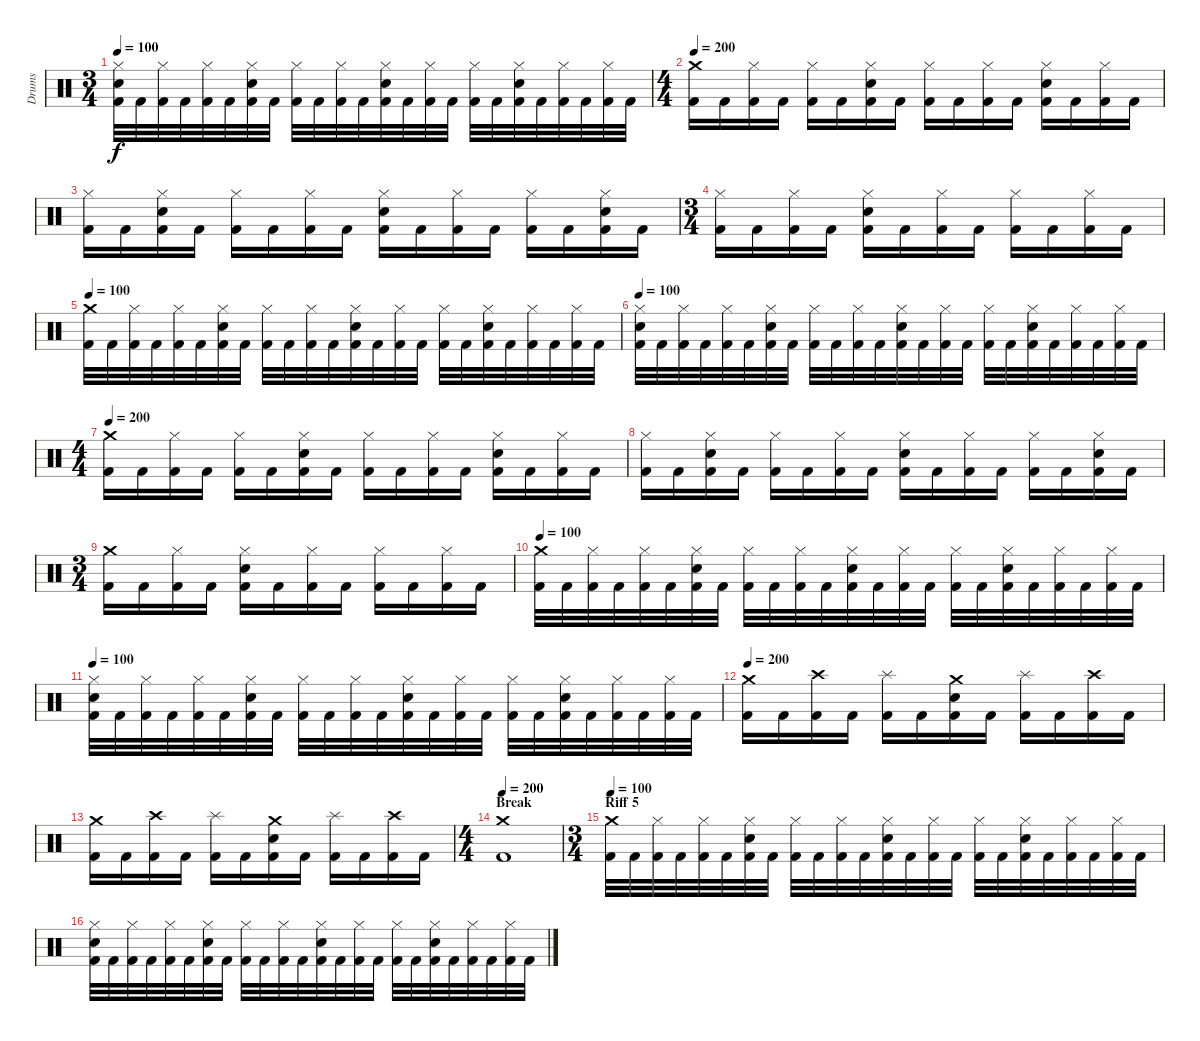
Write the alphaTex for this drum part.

\track ("Drums" "Drums") {instrument percussion}
\staff {score}
\articulation defaults
\ts (3 4)
\tempo 100
\clef neutral
\ks c
("Hi-Hat (closed)" "Electric Snare (hit)" "Kick (hit) 2").32{dy f} "Kick (hit) 2".32 ("Hi-Hat (closed)" "Kick (hit) 2").32 "Kick (hit) 2".32 ("Hi-Hat (closed)" "Kick (hit) 2").32 "Kick (hit) 2".32 ("Hi-Hat (closed)" "Electric Snare (hit)" "Kick (hit) 2").32 "Kick (hit) 2".32 ("Hi-Hat (closed)" "Kick (hit) 2").32 "Kick (hit) 2".32 ("Hi-Hat (closed)" "Kick (hit) 2").32 "Kick (hit) 2".32 ("Hi-Hat (closed)" "Electric Snare (hit)" "Kick (hit) 2").32 "Kick (hit) 2".32 ("Hi-Hat (closed)" "Kick (hit) 2").32 "Kick (hit) 2".32 ("Hi-Hat (closed)" "Kick (hit) 2").32 "Kick (hit) 2".32 ("Hi-Hat (closed)" "Electric Snare (hit)" "Kick (hit) 2").32 "Kick (hit) 2".32 ("Hi-Hat (closed)" "Kick (hit) 2").32 "Kick (hit) 2".32 ("Hi-Hat (closed)" "Kick (hit) 2").32 "Kick (hit) 2".32 |
\ts (4 4)
\tempo 200
("Crash medium (hit)" "Kick (hit) 2").16 "Kick (hit) 2".16 ("Hi-Hat (closed)" "Kick (hit) 2").16 "Kick (hit) 2".16 ("Hi-Hat (closed)" "Kick (hit) 2").16 "Kick (hit) 2".16 ("Hi-Hat (closed)" "Electric Snare (hit)" "Kick (hit) 2").16 "Kick (hit) 2".16 ("Hi-Hat (closed)" "Kick (hit) 2").16 "Kick (hit) 2".16 ("Hi-Hat (closed)" "Kick (hit) 2").16 "Kick (hit) 2".16 ("Hi-Hat (closed)" "Electric Snare (hit)" "Kick (hit) 2").16 "Kick (hit) 2".16 ("Hi-Hat (closed)" "Kick (hit) 2").16 "Kick (hit) 2".16 |
("Hi-Hat (closed)" "Kick (hit) 2").16 "Kick (hit) 2".16 ("Hi-Hat (closed)" "Electric Snare (hit)" "Kick (hit) 2").16 "Kick (hit) 2".16 ("Hi-Hat (closed)" "Kick (hit) 2").16 "Kick (hit) 2".16 ("Hi-Hat (closed)" "Kick (hit) 2").16 "Kick (hit) 2".16 ("Hi-Hat (closed)" "Electric Snare (hit)" "Kick (hit) 2").16 "Kick (hit) 2".16 ("Hi-Hat (closed)" "Kick (hit) 2").16 "Kick (hit) 2".16 ("Hi-Hat (closed)" "Kick (hit) 2").16 "Kick (hit) 2".16 ("Hi-Hat (closed)" "Electric Snare (hit)" "Kick (hit) 2").16 "Kick (hit) 2".16 |
\ts (3 4)
("Hi-Hat (closed)" "Kick (hit) 2").16 "Kick (hit) 2".16 ("Hi-Hat (closed)" "Kick (hit) 2").16 "Kick (hit) 2".16 ("Hi-Hat (closed)" "Electric Snare (hit)" "Kick (hit) 2").16 "Kick (hit) 2".16 ("Hi-Hat (closed)" "Kick (hit) 2").16 "Kick (hit) 2".16 ("Hi-Hat (closed)" "Kick (hit) 2").16 "Kick (hit) 2".16 ("Hi-Hat (closed)" "Kick (hit) 2").16 "Kick (hit) 2".16 |
\tempo 100
("Crash medium (hit)" "Kick (hit) 2").32 "Kick (hit) 2".32 ("Hi-Hat (closed)" "Kick (hit) 2").32 "Kick (hit) 2".32 ("Hi-Hat (closed)" "Kick (hit) 2").32 "Kick (hit) 2".32 ("Hi-Hat (closed)" "Electric Snare (hit)" "Kick (hit) 2").32 "Kick (hit) 2".32 ("Hi-Hat (closed)" "Kick (hit) 2").32 "Kick (hit) 2".32 ("Hi-Hat (closed)" "Kick (hit) 2").32 "Kick (hit) 2".32 ("Hi-Hat (closed)" "Electric Snare (hit)" "Kick (hit) 2").32 "Kick (hit) 2".32 ("Hi-Hat (closed)" "Kick (hit) 2").32 "Kick (hit) 2".32 ("Hi-Hat (closed)" "Kick (hit) 2").32 "Kick (hit) 2".32 ("Hi-Hat (closed)" "Electric Snare (hit)" "Kick (hit) 2").32 "Kick (hit) 2".32 ("Hi-Hat (closed)" "Kick (hit) 2").32 "Kick (hit) 2".32 ("Hi-Hat (closed)" "Kick (hit) 2").32 "Kick (hit) 2".32 |
\tempo 100
("Hi-Hat (closed)" "Electric Snare (hit)" "Kick (hit) 2").32 "Kick (hit) 2".32 ("Hi-Hat (closed)" "Kick (hit) 2").32 "Kick (hit) 2".32 ("Hi-Hat (closed)" "Kick (hit) 2").32 "Kick (hit) 2".32 ("Hi-Hat (closed)" "Electric Snare (hit)" "Kick (hit) 2").32 "Kick (hit) 2".32 ("Hi-Hat (closed)" "Kick (hit) 2").32 "Kick (hit) 2".32 ("Hi-Hat (closed)" "Kick (hit) 2").32 "Kick (hit) 2".32 ("Hi-Hat (closed)" "Electric Snare (hit)" "Kick (hit) 2").32 "Kick (hit) 2".32 ("Hi-Hat (closed)" "Kick (hit) 2").32 "Kick (hit) 2".32 ("Hi-Hat (closed)" "Kick (hit) 2").32 "Kick (hit) 2".32 ("Hi-Hat (closed)" "Electric Snare (hit)" "Kick (hit) 2").32 "Kick (hit) 2".32 ("Hi-Hat (closed)" "Kick (hit) 2").32 "Kick (hit) 2".32 ("Hi-Hat (closed)" "Kick (hit) 2").32 "Kick (hit) 2".32 |
\ts (4 4)
\tempo 200
("Crash medium (hit)" "Kick (hit) 2").16 "Kick (hit) 2".16 ("Hi-Hat (closed)" "Kick (hit) 2").16 "Kick (hit) 2".16 ("Hi-Hat (closed)" "Kick (hit) 2").16 "Kick (hit) 2".16 ("Hi-Hat (closed)" "Electric Snare (hit)" "Kick (hit) 2").16 "Kick (hit) 2".16 ("Hi-Hat (closed)" "Kick (hit) 2").16 "Kick (hit) 2".16 ("Hi-Hat (closed)" "Kick (hit) 2").16 "Kick (hit) 2".16 ("Hi-Hat (closed)" "Electric Snare (hit)" "Kick (hit) 2").16 "Kick (hit) 2".16 ("Hi-Hat (closed)" "Kick (hit) 2").16 "Kick (hit) 2".16 |
("Hi-Hat (closed)" "Kick (hit) 2").16 "Kick (hit) 2".16 ("Hi-Hat (closed)" "Electric Snare (hit)" "Kick (hit) 2").16 "Kick (hit) 2".16 ("Hi-Hat (closed)" "Kick (hit) 2").16 "Kick (hit) 2".16 ("Hi-Hat (closed)" "Kick (hit) 2").16 "Kick (hit) 2".16 ("Hi-Hat (closed)" "Electric Snare (hit)" "Kick (hit) 2").16 "Kick (hit) 2".16 ("Hi-Hat (closed)" "Kick (hit) 2").16 "Kick (hit) 2".16 ("Hi-Hat (closed)" "Kick (hit) 2").16 "Kick (hit) 2".16 ("Hi-Hat (closed)" "Electric Snare (hit)" "Kick (hit) 2").16 "Kick (hit) 2".16 |
\ts (3 4)
("Crash medium (hit)" "Kick (hit) 2").16 "Kick (hit) 2".16 ("Hi-Hat (closed)" "Kick (hit) 2").16 "Kick (hit) 2".16 ("Hi-Hat (closed)" "Electric Snare (hit)" "Kick (hit) 2").16 "Kick (hit) 2".16 ("Hi-Hat (closed)" "Kick (hit) 2").16 "Kick (hit) 2".16 ("Hi-Hat (closed)" "Kick (hit) 2").16 "Kick (hit) 2".16 ("Hi-Hat (closed)" "Kick (hit) 2").16 "Kick (hit) 2".16 |
\tempo 100
("Crash medium (hit)" "Kick (hit) 2").32 "Kick (hit) 2".32 ("Hi-Hat (closed)" "Kick (hit) 2").32 "Kick (hit) 2".32 ("Hi-Hat (closed)" "Kick (hit) 2").32 "Kick (hit) 2".32 ("Hi-Hat (closed)" "Electric Snare (hit)" "Kick (hit) 2").32 "Kick (hit) 2".32 ("Hi-Hat (closed)" "Kick (hit) 2").32 "Kick (hit) 2".32 ("Hi-Hat (closed)" "Kick (hit) 2").32 "Kick (hit) 2".32 ("Hi-Hat (closed)" "Electric Snare (hit)" "Kick (hit) 2").32 "Kick (hit) 2".32 ("Hi-Hat (closed)" "Kick (hit) 2").32 "Kick (hit) 2".32 ("Hi-Hat (closed)" "Kick (hit) 2").32 "Kick (hit) 2".32 ("Hi-Hat (closed)" "Electric Snare (hit)" "Kick (hit) 2").32 "Kick (hit) 2".32 ("Hi-Hat (closed)" "Kick (hit) 2").32 "Kick (hit) 2".32 ("Hi-Hat (closed)" "Kick (hit) 2").32 "Kick (hit) 2".32 |
\tempo 100
("Hi-Hat (closed)" "Electric Snare (hit)" "Kick (hit) 2").32 "Kick (hit) 2".32 ("Hi-Hat (closed)" "Kick (hit) 2").32 "Kick (hit) 2".32 ("Hi-Hat (closed)" "Kick (hit) 2").32 "Kick (hit) 2".32 ("Hi-Hat (closed)" "Electric Snare (hit)" "Kick (hit) 2").32 "Kick (hit) 2".32 ("Hi-Hat (closed)" "Kick (hit) 2").32 "Kick (hit) 2".32 ("Hi-Hat (closed)" "Kick (hit) 2").32 "Kick (hit) 2".32 ("Hi-Hat (closed)" "Electric Snare (hit)" "Kick (hit) 2").32 "Kick (hit) 2".32 ("Hi-Hat (closed)" "Kick (hit) 2").32 "Kick (hit) 2".32 ("Hi-Hat (closed)" "Kick (hit) 2").32 "Kick (hit) 2".32 ("Hi-Hat (closed)" "Electric Snare (hit)" "Kick (hit) 2").32 "Kick (hit) 2".32 ("Hi-Hat (closed)" "Kick (hit) 2").32 "Kick (hit) 2".32 ("Hi-Hat (closed)" "Kick (hit) 2").32 "Kick (hit) 2".32 |
\tempo 200
("Crash medium (hit)" "Kick (hit) 2").16 "Kick (hit) 2".16 ("Crash high (hit)" "Kick (hit) 2").16 "Kick (hit) 2".16 ("Splash (hit)" "Kick (hit) 2").16 "Kick (hit) 2".16 ("Crash medium (hit)" "Electric Snare (hit)" "Kick (hit) 2").16 "Kick (hit) 2".16 ("Splash (hit)" "Kick (hit) 2").16 "Kick (hit) 2".16 ("Crash high (hit)" "Kick (hit) 2").16 "Kick (hit) 2".16 |
("Crash medium (hit)" "Kick (hit) 2").16 "Kick (hit) 2".16 ("Crash high (hit)" "Kick (hit) 2").16 "Kick (hit) 2".16 ("Splash (hit)" "Kick (hit) 2").16 "Kick (hit) 2".16 ("Crash medium (hit)" "Electric Snare (hit)" "Kick (hit) 2").16 "Kick (hit) 2".16 ("Splash (hit)" "Kick (hit) 2").16 "Kick (hit) 2".16 ("Crash high (hit)" "Kick (hit) 2").16 "Kick (hit) 2".16 |
\ts (4 4)
\section ("" "Break")
\tempo 200
("Crash medium (hit)" "Kick (hit) 2").1 |
\ts (3 4)
\section ("" "Riff 5")
\tempo 100
("Crash medium (hit)" "Kick (hit) 2").32 "Kick (hit) 2".32 ("Hi-Hat (closed)" "Kick (hit) 2").32 "Kick (hit) 2".32 ("Hi-Hat (closed)" "Kick (hit) 2").32 "Kick (hit) 2".32 ("Hi-Hat (closed)" "Electric Snare (hit)" "Kick (hit) 2").32 "Kick (hit) 2".32 ("Hi-Hat (closed)" "Kick (hit) 2").32 "Kick (hit) 2".32 ("Hi-Hat (closed)" "Kick (hit) 2").32 "Kick (hit) 2".32 ("Hi-Hat (closed)" "Electric Snare (hit)" "Kick (hit) 2").32 "Kick (hit) 2".32 ("Hi-Hat (closed)" "Kick (hit) 2").32 "Kick (hit) 2".32 ("Hi-Hat (closed)" "Kick (hit) 2").32 "Kick (hit) 2".32 ("Hi-Hat (closed)" "Electric Snare (hit)" "Kick (hit) 2").32 "Kick (hit) 2".32 ("Hi-Hat (closed)" "Kick (hit) 2").32 "Kick (hit) 2".32 ("Hi-Hat (closed)" "Kick (hit) 2").32 "Kick (hit) 2".32 |
("Hi-Hat (closed)" "Electric Snare (hit)" "Kick (hit) 2").32 "Kick (hit) 2".32 ("Hi-Hat (closed)" "Kick (hit) 2").32 "Kick (hit) 2".32 ("Hi-Hat (closed)" "Kick (hit) 2").32 "Kick (hit) 2".32 ("Hi-Hat (closed)" "Electric Snare (hit)" "Kick (hit) 2").32 "Kick (hit) 2".32 ("Hi-Hat (closed)" "Kick (hit) 2").32 "Kick (hit) 2".32 ("Hi-Hat (closed)" "Kick (hit) 2").32 "Kick (hit) 2".32 ("Hi-Hat (closed)" "Electric Snare (hit)" "Kick (hit) 2").32 "Kick (hit) 2".32 ("Hi-Hat (closed)" "Kick (hit) 2").32 "Kick (hit) 2".32 ("Hi-Hat (closed)" "Kick (hit) 2").32 "Kick (hit) 2".32 ("Hi-Hat (closed)" "Electric Snare (hit)" "Kick (hit) 2").32 "Kick (hit) 2".32 ("Hi-Hat (closed)" "Kick (hit) 2").32 "Kick (hit) 2".32 ("Hi-Hat (closed)" "Kick (hit) 2").32 "Kick (hit) 2".32
